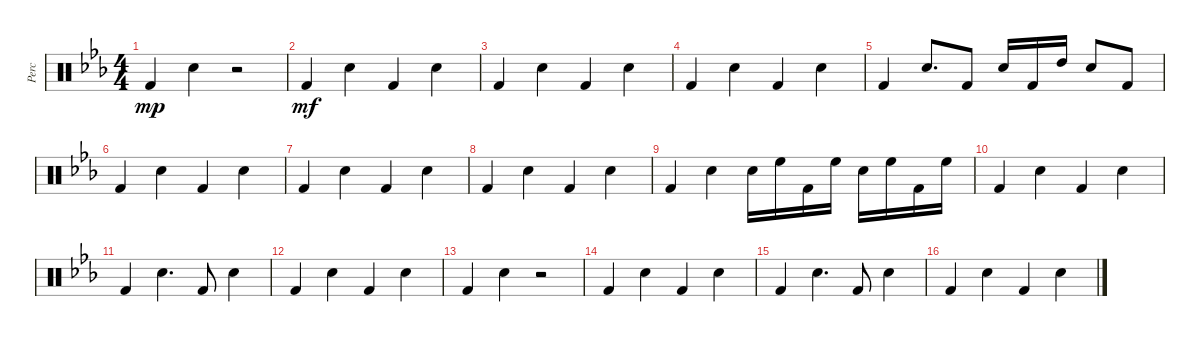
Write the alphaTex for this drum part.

\defaultSystemsLayout 4
\bracketExtendMode groupsimilarinstruments
\otherSystemsTrackNameOrientation horizontal
\track ("Percussions" "Perc") {instrument percussion}
\staff {score}
\articulation defaults
\ts (4 4)
\tempo (140 hide)
\clef neutral
\ks cminor "Kick (hit) 2"{acc forcenatural}.4{dy mp beam Up} "Snare (hit) 2"{acc forcenatural}.4{beam Down}
r.2{beam Down} |
"Kick (hit) 2"{acc forcenatural}.4{dy mf beam Up} "Snare (hit) 2"{acc forcenatural}.4{beam Down} "Kick (hit) 2"{acc forcenatural}.4{beam Up} "Snare (hit) 2"{acc forcenatural}.4{beam Down} |
"Kick (hit) 2"{acc forcenatural}.4{beam Up} "Snare (hit) 2"{acc forcenatural}.4{beam Down} "Kick (hit) 2"{acc forcenatural}.4{beam Up} "Snare (hit) 2"{acc forcenatural}.4{beam Down} |
"Kick (hit) 2"{acc forcenatural}.4{beam Up} "Snare (hit) 2"{acc forcenatural}.4{beam Down} "Kick (hit) 2"{acc forcenatural}.4{beam Up} "Snare (hit) 2"{acc forcenatural}.4{beam Down} |
"Kick (hit) 2"{acc forcenatural}.4{beam Up} "Snare (hit) 2"{acc forcenatural}.8{d beam Up} "Kick (hit) 2"{acc forcenatural}.8{beam Up} "Snare (hit) 2"{acc forcenatural}.16{beam Up} "Kick (hit) 2"{acc forcenatural}.16{beam Up} "High Tom (hit)"{acc forcenatural}.16{beam Up} "Snare (hit) 2"{acc forcenatural}.8{beam Up} "Kick (hit) 2"{acc forcenatural}.8{beam Up} |
"Kick (hit) 2"{acc forcenatural}.4{beam Up} "Snare (hit) 2"{acc forcenatural}.4{beam Down} "Kick (hit) 2"{acc forcenatural}.4{beam Up} "Snare (hit) 2"{acc forcenatural}.4{beam Down} |
"Kick (hit) 2"{acc forcenatural}.4{beam Up} "Snare (hit) 2"{acc forcenatural}.4{beam Down} "Kick (hit) 2"{acc forcenatural}.4{beam Up} "Snare (hit) 2"{acc forcenatural}.4{beam Down} |
"Kick (hit) 2"{acc forcenatural}.4{beam Up} "Snare (hit) 2"{acc forcenatural}.4{beam Down} "Kick (hit) 2"{acc forcenatural}.4{beam Up} "Snare (hit) 2"{acc forcenatural}.4{beam Down} |
"Kick (hit) 2"{acc forcenatural}.4{beam Up} "Snare (hit) 2"{acc forcenatural}.4{beam Down} "Snare (hit) 2"{acc forcenatural}.16{beam Down} "High Floor Tom (hit)"{acc forcenatural}.16{beam Down} "Kick (hit) 2"{acc forcenatural}.16{beam Down} "High Floor Tom (hit)"{acc forcenatural}.16{beam Down} "Snare (hit) 2"{acc forcenatural}.16{beam Down} "High Floor Tom (hit)"{acc forcenatural}.16{beam Down} "Kick (hit) 2"{acc forcenatural}.16{beam Down} "High Floor Tom (hit)"{acc forcenatural}.16{beam Down} |
"Kick (hit) 2"{acc forcenatural}.4{beam Up} "Snare (hit) 2"{acc forcenatural}.4{beam Down} "Kick (hit) 2"{acc forcenatural}.4{beam Up} "Snare (hit) 2"{acc forcenatural}.4{beam Down} |
"Kick (hit) 2"{acc forcenatural}.4{beam Up} "Snare (hit) 2"{acc forcenatural}.4{d beam Down} "Kick (hit) 2"{acc forcenatural}.8{beam Up} "Snare (hit) 2"{acc forcenatural}.4{beam Down} |
"Kick (hit) 2"{acc forcenatural}.4{beam Up} "Snare (hit) 2"{acc forcenatural}.4{beam Down} "Kick (hit) 2"{acc forcenatural}.4{beam Up} "Snare (hit) 2"{acc forcenatural}.4{beam Down} |
"Kick (hit) 2"{acc forcenatural}.4{beam Up} "Snare (hit) 2"{acc forcenatural}.4{beam Down} r.2{beam Down} |
"Kick (hit) 2"{acc forcenatural}.4{beam Up} "Snare (hit) 2"{acc forcenatural}.4{beam Down} "Kick (hit) 2"{acc forcenatural}.4{beam Up} "Snare (hit) 2"{acc forcenatural}.4{beam Down} |
"Kick (hit) 2"{acc forcenatural}.4{beam Up} "Snare (hit) 2"{acc forcenatural}.4{d beam Down} "Kick (hit) 2"{acc forcenatural}.8{beam Up} "Snare (hit) 2"{acc forcenatural}.4{beam Down} |
"Kick (hit) 2"{acc forcenatural}.4{beam Up} "Snare (hit) 2"{acc forcenatural}.4{beam Down} "Kick (hit) 2"{acc forcenatural}.4{beam Up} "Snare (hit) 2"{acc forcenatural}.4{beam Down}
